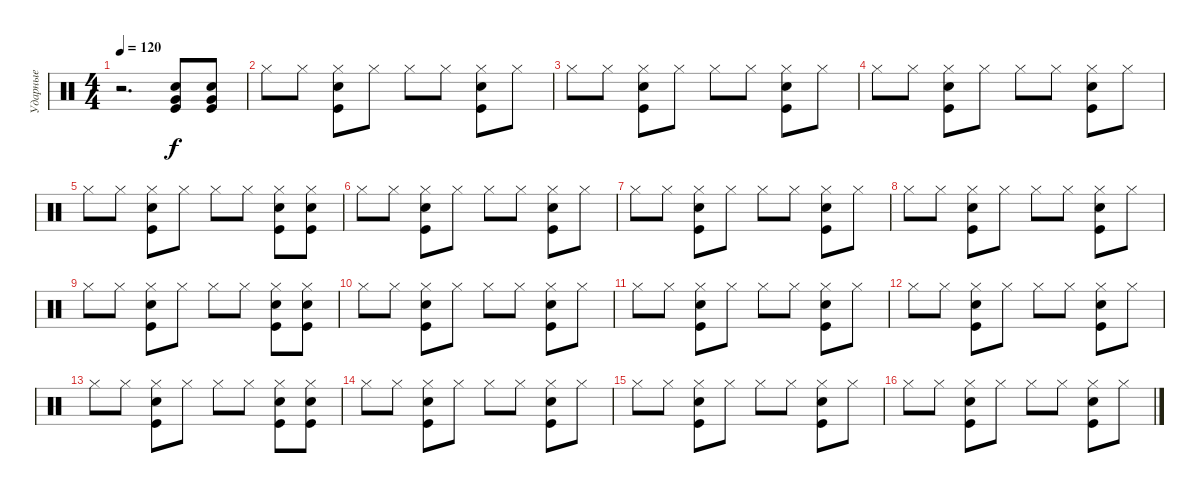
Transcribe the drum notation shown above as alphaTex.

\track ("Ударные" "Ударные") {instrument percussion}
\staff {score}
\articulation defaults
\ts (4 4)
\tempo 120
\clef neutral
\ks c
r.2{d dy f} ("Snare (hit) 2" "Very Low Tom (hit)" "Kick (hit)").8 ("Snare (hit) 2" "Very Low Tom (hit)" "Kick (hit)").8 |
"Hi-Hat (closed)".8 "Hi-Hat (closed)".8 ("Hi-Hat (closed)" "Kick (hit)" "Snare (hit) 2").8 "Hi-Hat (closed)".8 "Hi-Hat (closed)".8 "Hi-Hat (closed)".8 ("Hi-Hat (closed)" "Kick (hit)" "Snare (hit) 2").8 "Hi-Hat (closed)".8 |
"Hi-Hat (closed)".8 "Hi-Hat (closed)".8 ("Hi-Hat (closed)" "Kick (hit)" "Snare (hit) 2").8 "Hi-Hat (closed)".8 "Hi-Hat (closed)".8 "Hi-Hat (closed)".8 ("Hi-Hat (closed)" "Kick (hit)" "Snare (hit) 2").8 "Hi-Hat (closed)".8 |
"Hi-Hat (closed)".8 "Hi-Hat (closed)".8 ("Hi-Hat (closed)" "Kick (hit)" "Snare (hit) 2").8 "Hi-Hat (closed)".8 "Hi-Hat (closed)".8 "Hi-Hat (closed)".8 ("Hi-Hat (closed)" "Kick (hit)" "Snare (hit) 2").8 "Hi-Hat (closed)".8 |
"Hi-Hat (closed)".8 "Hi-Hat (closed)".8 ("Hi-Hat (closed)" "Kick (hit)" "Snare (hit) 2").8 "Hi-Hat (closed)".8 "Hi-Hat (closed)".8 "Hi-Hat (closed)".8 ("Hi-Hat (closed)" "Kick (hit)" "Snare (hit) 2").8 ("Hi-Hat (closed)" "Kick (hit)" "Snare (hit) 2").8 |
"Hi-Hat (closed)".8 "Hi-Hat (closed)".8 ("Hi-Hat (closed)" "Kick (hit)" "Snare (hit) 2").8 "Hi-Hat (closed)".8 "Hi-Hat (closed)".8 "Hi-Hat (closed)".8 ("Hi-Hat (closed)" "Kick (hit)" "Snare (hit) 2").8 "Hi-Hat (closed)".8 |
"Hi-Hat (closed)".8 "Hi-Hat (closed)".8 ("Hi-Hat (closed)" "Kick (hit)" "Snare (hit) 2").8 "Hi-Hat (closed)".8 "Hi-Hat (closed)".8 "Hi-Hat (closed)".8 ("Hi-Hat (closed)" "Kick (hit)" "Snare (hit) 2").8 "Hi-Hat (closed)".8 |
"Hi-Hat (closed)".8 "Hi-Hat (closed)".8 ("Hi-Hat (closed)" "Kick (hit)" "Snare (hit) 2").8 "Hi-Hat (closed)".8 "Hi-Hat (closed)".8 "Hi-Hat (closed)".8 ("Hi-Hat (closed)" "Kick (hit)" "Snare (hit) 2").8 "Hi-Hat (closed)".8 |
"Hi-Hat (closed)".8 "Hi-Hat (closed)".8 ("Hi-Hat (closed)" "Kick (hit)" "Snare (hit) 2").8 "Hi-Hat (closed)".8 "Hi-Hat (closed)".8 "Hi-Hat (closed)".8 ("Hi-Hat (closed)" "Kick (hit)" "Snare (hit) 2").8 ("Hi-Hat (closed)" "Kick (hit)" "Snare (hit) 2").8 |
"Hi-Hat (closed)".8 "Hi-Hat (closed)".8 ("Hi-Hat (closed)" "Kick (hit)" "Snare (hit) 2").8 "Hi-Hat (closed)".8 "Hi-Hat (closed)".8 "Hi-Hat (closed)".8 ("Hi-Hat (closed)" "Kick (hit)" "Snare (hit) 2").8 "Hi-Hat (closed)".8 |
"Hi-Hat (closed)".8 "Hi-Hat (closed)".8 ("Hi-Hat (closed)" "Kick (hit)" "Snare (hit) 2").8 "Hi-Hat (closed)".8 "Hi-Hat (closed)".8 "Hi-Hat (closed)".8 ("Hi-Hat (closed)" "Kick (hit)" "Snare (hit) 2").8 "Hi-Hat (closed)".8 |
"Hi-Hat (closed)".8 "Hi-Hat (closed)".8 ("Hi-Hat (closed)" "Kick (hit)" "Snare (hit) 2").8 "Hi-Hat (closed)".8 "Hi-Hat (closed)".8 "Hi-Hat (closed)".8 ("Hi-Hat (closed)" "Kick (hit)" "Snare (hit) 2").8 "Hi-Hat (closed)".8 |
"Hi-Hat (closed)".8 "Hi-Hat (closed)".8 ("Hi-Hat (closed)" "Kick (hit)" "Snare (hit) 2").8 "Hi-Hat (closed)".8 "Hi-Hat (closed)".8 "Hi-Hat (closed)".8 ("Hi-Hat (closed)" "Kick (hit)" "Snare (hit) 2").8 ("Hi-Hat (closed)" "Kick (hit)" "Snare (hit) 2").8 |
"Hi-Hat (closed)".8 "Hi-Hat (closed)".8 ("Hi-Hat (closed)" "Kick (hit)" "Snare (hit) 2").8 "Hi-Hat (closed)".8 "Hi-Hat (closed)".8 "Hi-Hat (closed)".8 ("Hi-Hat (closed)" "Kick (hit)" "Snare (hit) 2").8 "Hi-Hat (closed)".8 |
"Hi-Hat (closed)".8 "Hi-Hat (closed)".8 ("Hi-Hat (closed)" "Kick (hit)" "Snare (hit) 2").8 "Hi-Hat (closed)".8 "Hi-Hat (closed)".8 "Hi-Hat (closed)".8 ("Hi-Hat (closed)" "Kick (hit)" "Snare (hit) 2").8 "Hi-Hat (closed)".8 |
"Hi-Hat (closed)".8 "Hi-Hat (closed)".8 ("Hi-Hat (closed)" "Kick (hit)" "Snare (hit) 2").8 "Hi-Hat (closed)".8 "Hi-Hat (closed)".8 "Hi-Hat (closed)".8 ("Hi-Hat (closed)" "Kick (hit)" "Snare (hit) 2").8 "Hi-Hat (closed)".8
